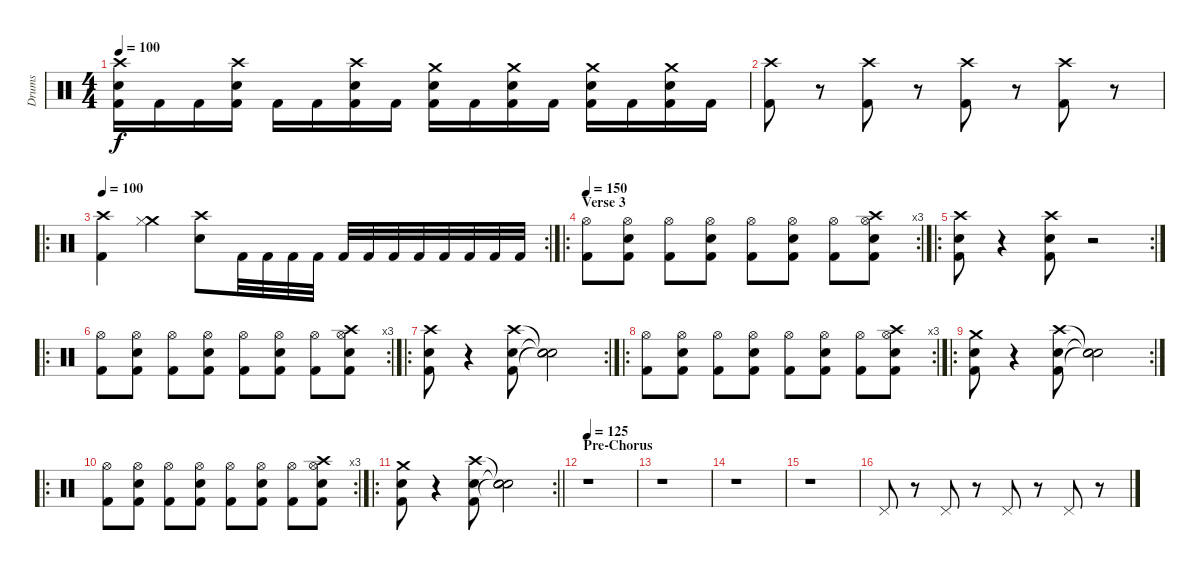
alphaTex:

\track ("Drums" "Drums") {instrument percussion}
\staff {score}
\articulation defaults
\ts (4 4)
\tempo 100
\clef neutral
\ks c
("Crash high (hit)" "Snare (hit) 2" "Kick (hit) 2").16{dy f} "Kick (hit) 2".16 "Kick (hit) 2".16 ("Crash high (hit)" "Snare (hit) 2" "Kick (hit) 2").16 "Kick (hit) 2".16 "Kick (hit) 2".16 ("Crash high (hit)" "Snare (hit) 2" "Kick (hit) 2").16 "Kick (hit) 2".16 ("Crash medium (hit)" "Snare (hit) 2" "Kick (hit) 2").16 "Kick (hit) 2".16 ("Crash medium (hit)" "Snare (hit) 2" "Kick (hit) 2").16 "Kick (hit) 2".16 ("Crash medium (hit)" "Snare (hit) 2" "Kick (hit) 2").16 "Kick (hit) 2".16 ("Crash medium (hit)" "Snare (hit) 2" "Kick (hit) 2").16 "Kick (hit) 2".16 |
("Crash high (hit)" "Kick (hit) 2").8 r.8 ("Crash high (hit)" "Kick (hit) 2").8 r.8 ("Crash high (hit)" "Kick (hit) 2").8 r.8 ("Crash high (hit)" "Kick (hit) 2").8 r.8 |
\ro
\rc 2
\tempo 100
("Crash high (hit)" "Kick (hit) 2").4 ("Crash medium (hit)" "Hi-Hat (closed)").4 ("Crash high (hit)" "Snare (hit) 2").8 "Kick (hit) 2".32 "Kick (hit) 2".32 "Kick (hit) 2".32 "Kick (hit) 2".32 "Kick (hit) 2".32 "Kick (hit) 2".32 "Kick (hit) 2".32 "Kick (hit) 2".32 "Kick (hit) 2".32 "Kick (hit) 2".32 "Kick (hit) 2".32 "Kick (hit) 2".32 |
\ro
\rc 3
\section ("" "Verse 3")
\tempo 150
("Hi-Hat (open)" "Kick (hit) 2").8 ("Hi-Hat (open)" "Snare (hit) 2" "Kick (hit) 2").8 ("Hi-Hat (open)" "Kick (hit) 2").8 ("Hi-Hat (open)" "Snare (hit) 2" "Kick (hit) 2").8 ("Hi-Hat (open)" "Kick (hit) 2").8 ("Hi-Hat (open)" "Snare (hit) 2" "Kick (hit) 2").8 ("Hi-Hat (open)" "Kick (hit) 2").8 ("Snare (hit) 2" "Crash high (hit)" "Hi-Hat (open)" "Kick (hit) 2").8 |
\ro
\rc 2
("Snare (hit) 2" "Crash high (hit)" "Kick (hit) 2").8 r.4 ("Snare (hit) 2" "Crash high (hit)" "Kick (hit) 2").8 r.2 |
\ro
\rc 3
("Hi-Hat (open)" "Kick (hit) 2").8 ("Hi-Hat (open)" "Snare (hit) 2" "Kick (hit) 2").8 ("Hi-Hat (open)" "Kick (hit) 2").8 ("Hi-Hat (open)" "Snare (hit) 2" "Kick (hit) 2").8 ("Hi-Hat (open)" "Kick (hit) 2").8 ("Hi-Hat (open)" "Snare (hit) 2" "Kick (hit) 2").8 ("Hi-Hat (open)" "Kick (hit) 2").8 ("Snare (hit) 2" "Crash high (hit)" "Hi-Hat (open)" "Kick (hit) 2").8 |
\ro
\rc 2
("Snare (hit) 2" "Crash high (hit)" "Kick (hit) 2").8 r.4 ("Snare (hit) 2" "Crash high (hit)" "Kick (hit) 2").8 ("Snare (hit)"{t} "Snare (hit)"{t} "Snare (hit)"{t}).2 |
\ro
\rc 3
("Hi-Hat (open)" "Kick (hit) 2").8 ("Hi-Hat (open)" "Snare (hit) 2" "Kick (hit) 2").8 ("Hi-Hat (open)" "Kick (hit) 2").8 ("Hi-Hat (open)" "Snare (hit) 2" "Kick (hit) 2").8 ("Hi-Hat (open)" "Kick (hit) 2").8 ("Hi-Hat (open)" "Snare (hit) 2" "Kick (hit) 2").8 ("Hi-Hat (open)" "Kick (hit) 2").8 ("Snare (hit) 2" "Hi-Hat (open)" "Crash high (hit)" "Kick (hit) 2").8 |
\ro
\rc 2
("Snare (hit) 2" "Crash medium (hit)" "Kick (hit) 2").8 r.4 ("Snare (hit) 2" "Crash high (hit)" "Kick (hit) 2").8 ("Snare (hit)"{t} "Snare (hit)"{t} "Snare (hit)"{t}).2 |
\ro
\rc 3
("Hi-Hat (open)" "Kick (hit) 2").8 ("Hi-Hat (open)" "Snare (hit) 2" "Kick (hit) 2").8 ("Hi-Hat (open)" "Kick (hit) 2").8 ("Hi-Hat (open)" "Snare (hit) 2" "Kick (hit) 2").8 ("Hi-Hat (open)" "Kick (hit) 2").8 ("Hi-Hat (open)" "Snare (hit) 2" "Kick (hit) 2").8 ("Hi-Hat (open)" "Kick (hit) 2").8 ("Snare (hit) 2" "Hi-Hat (open)" "Crash high (hit)" "Kick (hit) 2").8 |
\ro
\rc 2
\barLineRight lightlight
("Snare (hit) 2" "Crash medium (hit)" "Kick (hit) 2").8 r.4 ("Snare (hit) 2" "Crash high (hit)" "Kick (hit) 2").8 ("Snare (hit)"{t} "Snare (hit)"{t} "Snare (hit)"{t}).2 |
\section ("" "Pre-Chorus")
\tempo 125
r.1 |
r.1 |
r.1 |
r.1 |
"Pedal Hi-Hat (hit)".8 r.8 "Pedal Hi-Hat (hit)".8 r.8 "Pedal Hi-Hat (hit)".8 r.8 "Pedal Hi-Hat (hit)".8 r.8
